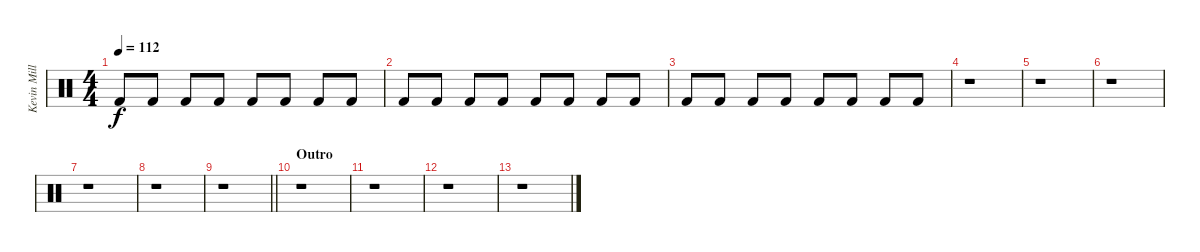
\track ("Kevin Miller (Drums)" "Kevin Mill") {instrument percussion}
\staff {score}
\articulation defaults
\ts (4 4)
\tempo 112
\clef neutral
\ks c "Kick (hit) 2".8{dy f} "Kick (hit) 2".8 "Kick (hit) 2".8 "Kick (hit) 2".8 "Kick (hit) 2".8 "Kick (hit) 2".8 "Kick (hit) 2".8 "Kick (hit) 2".8
|
"Kick (hit) 2".8 "Kick (hit) 2".8 "Kick (hit) 2".8 "Kick (hit) 2".8 "Kick (hit) 2".8 "Kick (hit) 2".8 "Kick (hit) 2".8 "Kick (hit) 2".8 |
"Kick (hit) 2".8 "Kick (hit) 2".8 "Kick (hit) 2".8 "Kick (hit) 2".8 "Kick (hit) 2".8 "Kick (hit) 2".8 "Kick (hit) 2".8 "Kick (hit) 2".8 |
r.1 |
r.1 |
r.1 |
r.1 |
r.1 |
\barLineRight lightlight
r.1 |
\section ("" "Outro")
r.1 |
r.1 |
r.1 |
r.1
